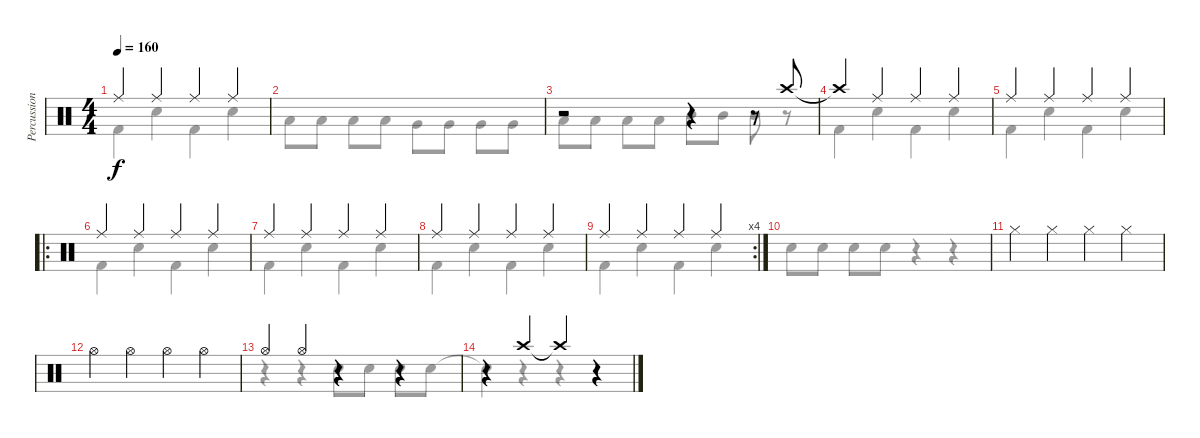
\track ("Percussion" "Percussion") {instrument percussion}
\staff {score}
\articulation defaults
\voice
\ts (4 4)
\tempo 160
\clef neutral
\ks c "Ride (middle)".4{dy f} "Ride (middle)".4 "Ride (middle)".4 "Ride (middle)".4
|
|
r.2 r.4 r.8 "Crash high (hit)".8 |
"Crash high (hit)"{t}.4 "Ride (middle)".4 "Ride (middle)".4 "Ride (middle)".4 |
"Ride (middle)".4 "Ride (middle)".4 "Ride (middle)".4 "Ride (middle)".4 |
\ro "Ride (middle)".4 "Ride (middle)".4 "Ride (middle)".4 "Ride (middle)".4
|
"Ride (middle)".4 "Ride (middle)".4 "Ride (middle)".4 "Ride (middle)".4 |
"Ride (middle)".4 "Ride (middle)".4 "Ride (middle)".4 "Ride (middle)".4 |
\rc 4 "Ride (middle)".4 "Ride (middle)".4 "Ride (middle)".4 "Ride (middle)".4
|
|
"Hi-Hat (closed)".4 "Hi-Hat (closed)".4 "Hi-Hat (closed)".4 "Hi-Hat (closed)".4 |
"Hi-Hat (open)".4 "Hi-Hat (open)".4 "Hi-Hat (open)".4 "Hi-Hat (open)".4 |
"Hi-Hat (open)".4 "Hi-Hat (open)".4 r.4 r.4 |
r.4 "Crash high (hit)".4 "Crash high (hit)"{t}.4 r.4
\voice
\clef neutral
\ottava regular
\simile none
\ks c "Kick (hit) 2".4{dy f} "Snare (hit) 2".4 "Kick (hit) 2".4 "Snare (hit) 2".4
|
"Low Floor Tom (hit)".8 "Low Floor Tom (hit)".8 "Low Floor Tom (hit)".8 "Low Floor Tom (hit)".8 "Very Low Tom (hit)".8 "Very Low Tom (hit)".8 "Very Low Tom (hit)".8 "Very Low Tom (hit)".8 |
"Low Tom (hit)".8 "Low Tom (hit)".8 "Low Tom (hit)".8 "Low Tom (hit)".8 "Mid Tom (hit)".8 "Mid Tom (hit)".8 "Mid Tom (hit)".8 r.8 |
"Kick (hit) 2".4 "Snare (hit) 2".4 "Kick (hit) 2".4 "Snare (hit) 2".4 |
"Kick (hit) 2".4 "Snare (hit) 2".4 "Kick (hit) 2".4 "Snare (hit) 2".4 |
"Kick (hit) 2".4 "Snare (hit) 2".4 "Kick (hit) 2".4 "Snare (hit) 2".4 |
"Kick (hit) 2".4 "Snare (hit) 2".4 "Kick (hit) 2".4 "Snare (hit) 2".4 |
"Kick (hit) 2".4 "Snare (hit) 2".4 "Kick (hit) 2".4 "Snare (hit) 2".4 |
"Kick (hit) 2".4 "Snare (hit) 2".4 "Kick (hit) 2".4 "Snare (hit) 2".4 |
"Snare (hit) 2".8 "Snare (hit) 2".8 "Snare (hit) 2".8 "Snare (hit) 2".8 r.4 r.4 |
|
|
r.4 r.4 "Snare (hit) 2".8 "Snare (hit) 2".8 "Snare (hit) 2".8 "Snare (hit) 2".8 |
"Snare (hit) 2"{t}.4 r.4 r.4 r.4
